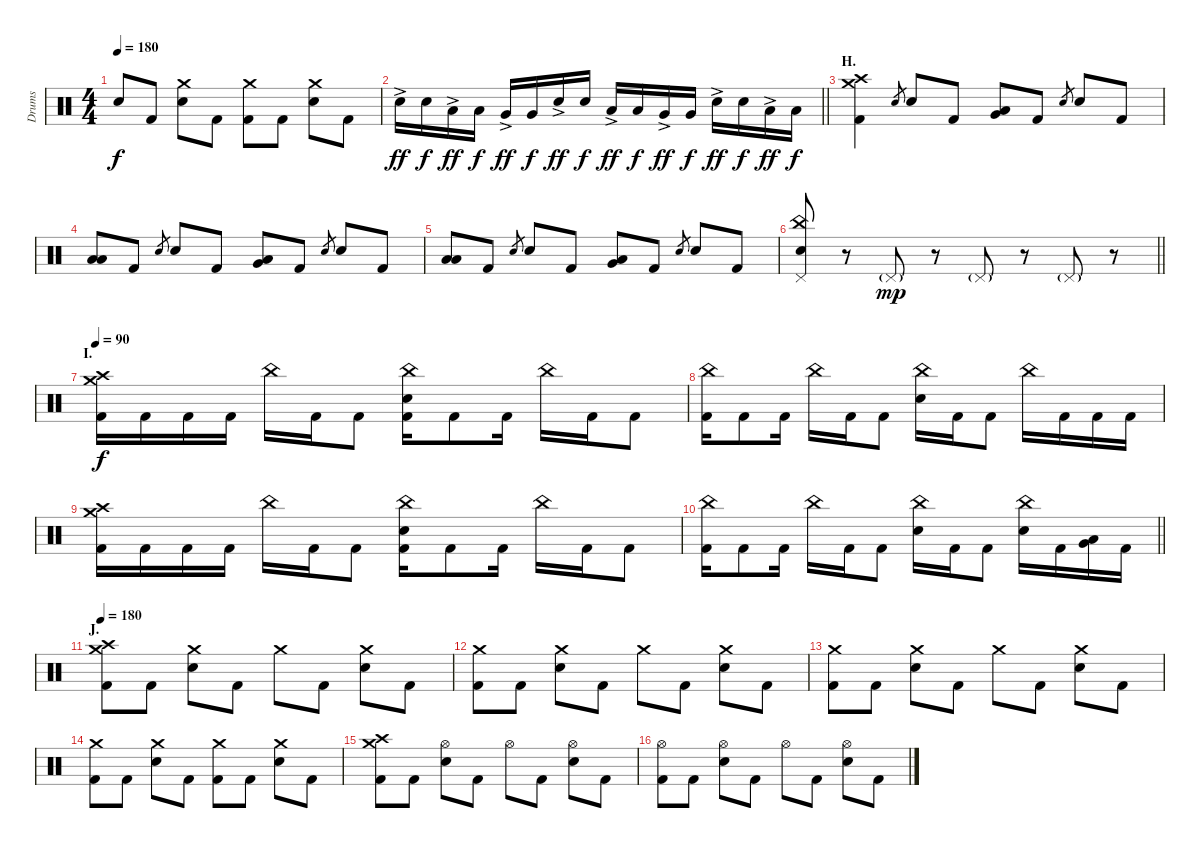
\track ("Drums" "Drums") {instrument percussion}
\staff {score}
\articulation defaults
\ts (4 4)
\tempo 180
\clef neutral
\ks c "Snare (hit)"{t}.8{dy f} "Kick (hit) 2".8
("Crash medium (hit)" "Electric Snare (hit)").8 "Kick (hit) 2".8 ("Crash medium (hit)" "Kick (hit) 2").8 "Kick (hit) 2".8 ("Crash medium (hit)" "Electric Snare (hit)").8 "Kick (hit) 2".8 |
\barLineRight lightlight "Electric Snare (hit)"{ac}.16{dy ff} "Electric Snare (hit)".16{dy f} "Low Tom (hit)"{ac}.16{dy ff} "Low Tom (hit)".16{dy f} "Very Low Tom (hit)"{ac}.16{dy ff} "Very Low Tom (hit)".16{dy f} "Electric Snare (hit)"{ac}.16{dy ff} "Electric Snare (hit)".16{dy f} "Low Tom (hit)"{ac}.16{dy ff} "Low Tom (hit)".16{dy f} "Very Low Tom (hit)"{ac}.16{dy ff} "Very Low Tom (hit)".16{dy f} "Electric Snare (hit)"{ac}.16{dy ff} "Electric Snare (hit)".16{dy f} "Low Tom (hit)"{ac}.16{dy ff} "Low Tom (hit)".16{dy f}
|
\section ("" "H.")
("Crash medium (hit)" "Crash high (hit)" "Kick (hit) 2").4 "Electric Snare (hit)".8{gr} "Electric Snare (hit)".8 "Kick (hit) 2".8 ("Very Low Tom (hit)" "Low Floor Tom (hit)").8{bu 120} "Kick (hit) 2".8 "Electric Snare (hit)".8{gr} "Electric Snare (hit)".8 "Kick (hit) 2".8 |
("Low Tom (hit)" "Low Floor Tom (hit)").8{bu 120} "Kick (hit) 2".8 "Electric Snare (hit)".8{gr} "Electric Snare (hit)".8 "Kick (hit) 2".8 ("Very Low Tom (hit)" "Low Floor Tom (hit)").8{bu 120} "Kick (hit) 2".8 "Electric Snare (hit)".8{gr} "Electric Snare (hit)".8 "Kick (hit) 2".8 |
("Low Tom (hit)" "Low Floor Tom (hit)").8{bu 120} "Kick (hit) 2".8 "Electric Snare (hit)".8{gr} "Electric Snare (hit)".8 "Kick (hit) 2".8 ("Very Low Tom (hit)" "Low Floor Tom (hit)").8{bu 120} "Kick (hit) 2".8 "Electric Snare (hit)".8{gr} "Electric Snare (hit)".8 "Kick (hit) 2".8 |
\barLineRight lightlight
("China (hit)" "Pedal Hi-Hat (hit)" "Electric Snare (hit)").8 r.8 "Pedal Hi-Hat (hit)"{g}.8{dy mp} r.8 "Pedal Hi-Hat (hit)"{g}.8 r.8 "Pedal Hi-Hat (hit)"{g}.8 r.8 |
\section ("" "I.")
\tempo 90
("Crash medium (hit)" "Crash high (hit)" "Kick (hit) 2").16{dy f} "Kick (hit) 2".16 "Kick (hit) 2".16 "Kick (hit) 2".16 "China (hit)".16 "Kick (hit) 2".16 "Kick (hit) 2".8 ("China (hit)" "Electric Snare (hit)" "Kick (hit) 2").16 "Kick (hit) 2".8 "Kick (hit) 2".16 "China (hit)".16 "Kick (hit) 2".16 "Kick (hit) 2".8 |
("China (hit)" "Kick (hit) 2").16 "Kick (hit) 2".8 "Kick (hit) 2".16 "China (hit)".16 "Kick (hit) 2".16 "Kick (hit) 2".8 ("China (hit)" "Electric Snare (hit)").16 "Kick (hit) 2".16 "Kick (hit) 2".8 "China (hit)".16 "Kick (hit) 2".16 "Kick (hit) 2".16 "Kick (hit) 2".16 |
("Crash medium (hit)" "Crash high (hit)" "Kick (hit) 2").16 "Kick (hit) 2".16 "Kick (hit) 2".16 "Kick (hit) 2".16 "China (hit)".16 "Kick (hit) 2".16 "Kick (hit) 2".8 ("China (hit)" "Electric Snare (hit)" "Kick (hit) 2").16 "Kick (hit) 2".8 "Kick (hit) 2".16 "China (hit)".16 "Kick (hit) 2".16 "Kick (hit) 2".8 |
\barLineRight lightlight
("China (hit)" "Kick (hit) 2").16 "Kick (hit) 2".8 "Kick (hit) 2".16 "China (hit)".16 "Kick (hit) 2".16 "Kick (hit) 2".8 ("China (hit)" "Electric Snare (hit)").16 "Kick (hit) 2".16 "Kick (hit) 2".8 ("China (hit)" "Electric Snare (hit)").16 "Kick (hit) 2".16 ("Very Low Tom (hit)" "Low Floor Tom (hit)").16{bu 120} "Kick (hit) 2".16 |
\section ("" "J.")
\tempo 180
("Crash medium (hit)" "Crash high (hit)" "Kick (hit) 2").8 "Kick (hit) 2".8 ("Crash medium (hit)" "Electric Snare (hit)").8 "Kick (hit) 2".8 "Crash medium (hit)".8 "Kick (hit) 2".8 ("Crash medium (hit)" "Electric Snare (hit)").8 "Kick (hit) 2".8 |
("Crash medium (hit)" "Kick (hit) 2").8 "Kick (hit) 2".8 ("Crash medium (hit)" "Electric Snare (hit)").8 "Kick (hit) 2".8 "Crash medium (hit)".8 "Kick (hit) 2".8 ("Crash medium (hit)" "Electric Snare (hit)").8 "Kick (hit) 2".8 |
("Crash medium (hit)" "Kick (hit) 2").8 "Kick (hit) 2".8 ("Crash medium (hit)" "Electric Snare (hit)").8 "Kick (hit) 2".8 "Crash medium (hit)".8 "Kick (hit) 2".8 ("Crash medium (hit)" "Electric Snare (hit)").8 "Kick (hit) 2".8 |
("Crash medium (hit)" "Kick (hit) 2").8 "Kick (hit) 2".8 ("Crash medium (hit)" "Electric Snare (hit)").8 "Kick (hit) 2".8 ("Crash medium (hit)" "Kick (hit) 2").8 "Kick (hit) 2".8 ("Crash medium (hit)" "Electric Snare (hit)").8 "Kick (hit) 2".8 |
("Crash medium (hit)" "Crash high (hit)" "Kick (hit) 2").8 "Kick (hit) 2".8 ("Hi-Hat (open)" "Electric Snare (hit)").8 "Kick (hit) 2".8 "Hi-Hat (open)".8 "Kick (hit) 2".8 ("Hi-Hat (open)" "Electric Snare (hit)").8 "Kick (hit) 2".8 |
("Hi-Hat (open)" "Kick (hit) 2").8 "Kick (hit) 2".8 ("Hi-Hat (open)" "Electric Snare (hit)").8 "Kick (hit) 2".8 "Hi-Hat (open)".8 "Kick (hit) 2".8 ("Hi-Hat (open)" "Electric Snare (hit)").8 "Kick (hit) 2".8
